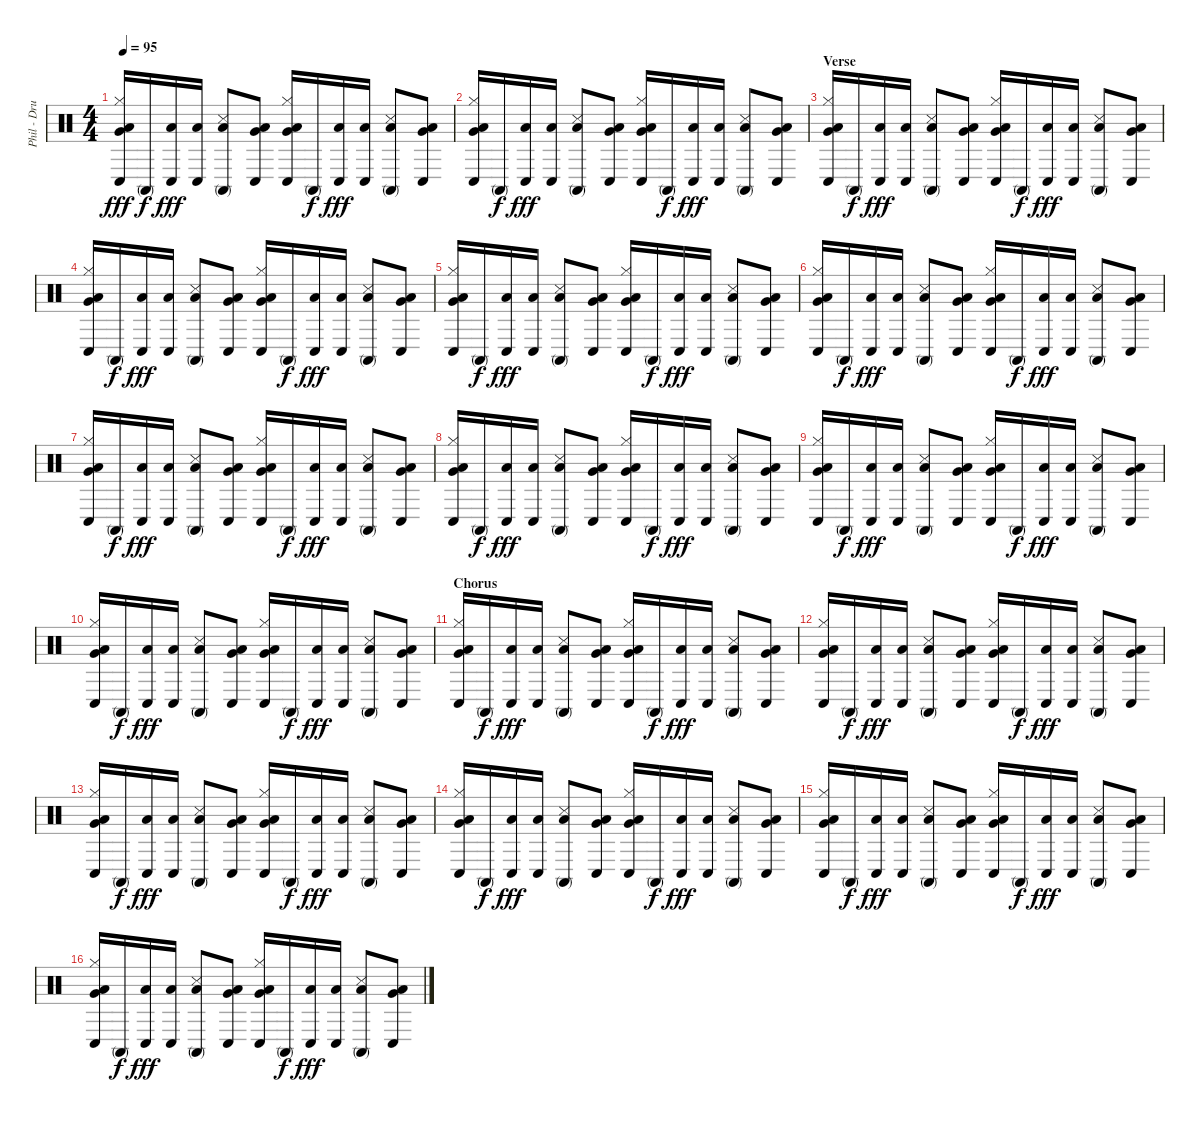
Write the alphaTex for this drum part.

\track ("Phil - Drums" "Phil - Dru") {instrument percussion}
\staff {score}
\articulation defaults
\ts (4 4)
\tempo 95
\clef neutral
\ks c
("Hi-Hat (closed)" "Conga low (hit)" "Low Floor Tom (hit)" "Very Low Tom (hit)").16{dy fff} "Conga high (mute)".16{dy f} ("Conga low (hit)" "Low Tom (hit)").16{dy fff} ("Conga low (hit)" "Low Tom (hit)").16 ("Conga high (mute)" "Snare (side stick) 3" "Low Tom (hit)").8 ("Conga low (hit)" "Low Floor Tom (hit)" "Very Low Tom (hit)").8 ("Hi-Hat (closed)" "Conga low (hit)" "Low Floor Tom (hit)" "Very Low Tom (hit)").16 "Conga high (mute)".16{dy f} ("Conga low (hit)" "Low Tom (hit)").16{dy fff} ("Conga low (hit)" "Low Tom (hit)").16 ("Conga high (mute)" "Snare (side stick) 3" "Low Tom (hit)").8 ("Conga low (hit)" "Low Floor Tom (hit)" "Very Low Tom (hit)").8 |
("Hi-Hat (closed)" "Conga low (hit)" "Low Floor Tom (hit)" "Very Low Tom (hit)").16 "Conga high (mute)".16{dy f} ("Conga low (hit)" "Low Tom (hit)").16{dy fff} ("Conga low (hit)" "Low Tom (hit)").16 ("Conga high (mute)" "Snare (side stick) 3" "Low Tom (hit)").8 ("Conga low (hit)" "Low Floor Tom (hit)" "Very Low Tom (hit)").8 ("Hi-Hat (closed)" "Conga low (hit)" "Low Floor Tom (hit)" "Very Low Tom (hit)").16 "Conga high (mute)".16{dy f} ("Conga low (hit)" "Low Tom (hit)").16{dy fff} ("Conga low (hit)" "Low Tom (hit)").16 ("Conga high (mute)" "Snare (side stick) 3" "Low Tom (hit)").8 ("Conga low (hit)" "Low Floor Tom (hit)" "Very Low Tom (hit)").8 |
\section ("" "Verse")
("Hi-Hat (closed)" "Conga low (hit)" "Low Floor Tom (hit)" "Very Low Tom (hit)").16 "Conga high (mute)".16{dy f} ("Conga low (hit)" "Low Tom (hit)").16{dy fff} ("Conga low (hit)" "Low Tom (hit)").16 ("Conga high (mute)" "Snare (side stick) 3" "Low Tom (hit)").8 ("Conga low (hit)" "Low Floor Tom (hit)" "Very Low Tom (hit)").8 ("Hi-Hat (closed)" "Conga low (hit)" "Low Floor Tom (hit)" "Very Low Tom (hit)").16 "Conga high (mute)".16{dy f} ("Conga low (hit)" "Low Tom (hit)").16{dy fff} ("Conga low (hit)" "Low Tom (hit)").16 ("Conga high (mute)" "Snare (side stick) 3" "Low Tom (hit)").8 ("Conga low (hit)" "Low Floor Tom (hit)" "Very Low Tom (hit)").8 |
("Hi-Hat (closed)" "Conga low (hit)" "Low Floor Tom (hit)" "Very Low Tom (hit)").16 "Conga high (mute)".16{dy f} ("Conga low (hit)" "Low Tom (hit)").16{dy fff} ("Conga low (hit)" "Low Tom (hit)").16 ("Conga high (mute)" "Snare (side stick) 3" "Low Tom (hit)").8 ("Conga low (hit)" "Low Floor Tom (hit)" "Very Low Tom (hit)").8 ("Hi-Hat (closed)" "Conga low (hit)" "Low Floor Tom (hit)" "Very Low Tom (hit)").16 "Conga high (mute)".16{dy f} ("Conga low (hit)" "Low Tom (hit)").16{dy fff} ("Conga low (hit)" "Low Tom (hit)").16 ("Conga high (mute)" "Snare (side stick) 3" "Low Tom (hit)").8 ("Conga low (hit)" "Low Floor Tom (hit)" "Very Low Tom (hit)").8 |
("Hi-Hat (closed)" "Conga low (hit)" "Low Floor Tom (hit)" "Very Low Tom (hit)").16 "Conga high (mute)".16{dy f} ("Conga low (hit)" "Low Tom (hit)").16{dy fff} ("Conga low (hit)" "Low Tom (hit)").16 ("Conga high (mute)" "Snare (side stick) 3" "Low Tom (hit)").8 ("Conga low (hit)" "Low Floor Tom (hit)" "Very Low Tom (hit)").8 ("Hi-Hat (closed)" "Conga low (hit)" "Low Floor Tom (hit)" "Very Low Tom (hit)").16 "Conga high (mute)".16{dy f} ("Conga low (hit)" "Low Tom (hit)").16{dy fff} ("Conga low (hit)" "Low Tom (hit)").16 ("Conga high (mute)" "Snare (side stick) 3" "Low Tom (hit)").8 ("Conga low (hit)" "Low Floor Tom (hit)" "Very Low Tom (hit)").8 |
("Hi-Hat (closed)" "Conga low (hit)" "Low Floor Tom (hit)" "Very Low Tom (hit)").16 "Conga high (mute)".16{dy f} ("Conga low (hit)" "Low Tom (hit)").16{dy fff} ("Conga low (hit)" "Low Tom (hit)").16 ("Conga high (mute)" "Snare (side stick) 3" "Low Tom (hit)").8 ("Conga low (hit)" "Low Floor Tom (hit)" "Very Low Tom (hit)").8 ("Hi-Hat (closed)" "Conga low (hit)" "Low Floor Tom (hit)" "Very Low Tom (hit)").16 "Conga high (mute)".16{dy f} ("Conga low (hit)" "Low Tom (hit)").16{dy fff} ("Conga low (hit)" "Low Tom (hit)").16 ("Conga high (mute)" "Snare (side stick) 3" "Low Tom (hit)").8 ("Conga low (hit)" "Low Floor Tom (hit)" "Very Low Tom (hit)").8 |
("Hi-Hat (closed)" "Conga low (hit)" "Low Floor Tom (hit)" "Very Low Tom (hit)").16 "Conga high (mute)".16{dy f} ("Conga low (hit)" "Low Tom (hit)").16{dy fff} ("Conga low (hit)" "Low Tom (hit)").16 ("Conga high (mute)" "Snare (side stick) 3" "Low Tom (hit)").8 ("Conga low (hit)" "Low Floor Tom (hit)" "Very Low Tom (hit)").8 ("Hi-Hat (closed)" "Conga low (hit)" "Low Floor Tom (hit)" "Very Low Tom (hit)").16 "Conga high (mute)".16{dy f} ("Conga low (hit)" "Low Tom (hit)").16{dy fff} ("Conga low (hit)" "Low Tom (hit)").16 ("Conga high (mute)" "Snare (side stick) 3" "Low Tom (hit)").8 ("Conga low (hit)" "Low Floor Tom (hit)" "Very Low Tom (hit)").8 |
("Hi-Hat (closed)" "Conga low (hit)" "Low Floor Tom (hit)" "Very Low Tom (hit)").16 "Conga high (mute)".16{dy f} ("Conga low (hit)" "Low Tom (hit)").16{dy fff} ("Conga low (hit)" "Low Tom (hit)").16 ("Conga high (mute)" "Snare (side stick) 3" "Low Tom (hit)").8 ("Conga low (hit)" "Low Floor Tom (hit)" "Very Low Tom (hit)").8 ("Hi-Hat (closed)" "Conga low (hit)" "Low Floor Tom (hit)" "Very Low Tom (hit)").16 "Conga high (mute)".16{dy f} ("Conga low (hit)" "Low Tom (hit)").16{dy fff} ("Conga low (hit)" "Low Tom (hit)").16 ("Conga high (mute)" "Snare (side stick) 3" "Low Tom (hit)").8 ("Conga low (hit)" "Low Floor Tom (hit)" "Very Low Tom (hit)").8 |
("Hi-Hat (closed)" "Conga low (hit)" "Low Floor Tom (hit)" "Very Low Tom (hit)").16 "Conga high (mute)".16{dy f} ("Conga low (hit)" "Low Tom (hit)").16{dy fff} ("Conga low (hit)" "Low Tom (hit)").16 ("Conga high (mute)" "Snare (side stick) 3" "Low Tom (hit)").8 ("Conga low (hit)" "Low Floor Tom (hit)" "Very Low Tom (hit)").8 ("Hi-Hat (closed)" "Conga low (hit)" "Low Floor Tom (hit)" "Very Low Tom (hit)").16 "Conga high (mute)".16{dy f} ("Conga low (hit)" "Low Tom (hit)").16{dy fff} ("Conga low (hit)" "Low Tom (hit)").16 ("Conga high (mute)" "Snare (side stick) 3" "Low Tom (hit)").8 ("Conga low (hit)" "Low Floor Tom (hit)" "Very Low Tom (hit)").8 |
("Hi-Hat (closed)" "Conga low (hit)" "Low Floor Tom (hit)" "Very Low Tom (hit)").16 "Conga high (mute)".16{dy f} ("Conga low (hit)" "Low Tom (hit)").16{dy fff} ("Conga low (hit)" "Low Tom (hit)").16 ("Conga high (mute)" "Snare (side stick) 3" "Low Tom (hit)").8 ("Conga low (hit)" "Low Floor Tom (hit)" "Very Low Tom (hit)").8 ("Hi-Hat (closed)" "Conga low (hit)" "Low Floor Tom (hit)" "Very Low Tom (hit)").16 "Conga high (mute)".16{dy f} ("Conga low (hit)" "Low Tom (hit)").16{dy fff} ("Conga low (hit)" "Low Tom (hit)").16 ("Conga high (mute)" "Snare (side stick) 3" "Low Tom (hit)").8 ("Conga low (hit)" "Low Floor Tom (hit)" "Very Low Tom (hit)").8 |
\section ("" "Chorus")
("Hi-Hat (closed)" "Conga low (hit)" "Low Floor Tom (hit)" "Very Low Tom (hit)").16 "Conga high (mute)".16{dy f} ("Conga low (hit)" "Low Tom (hit)").16{dy fff} ("Conga low (hit)" "Low Tom (hit)").16 ("Conga high (mute)" "Snare (side stick) 3" "Low Tom (hit)").8 ("Conga low (hit)" "Low Floor Tom (hit)" "Very Low Tom (hit)").8 ("Hi-Hat (closed)" "Conga low (hit)" "Low Floor Tom (hit)" "Very Low Tom (hit)").16 "Conga high (mute)".16{dy f} ("Conga low (hit)" "Low Tom (hit)").16{dy fff} ("Conga low (hit)" "Low Tom (hit)").16 ("Conga high (mute)" "Snare (side stick) 3" "Low Tom (hit)").8 ("Conga low (hit)" "Low Floor Tom (hit)" "Very Low Tom (hit)").8 |
("Hi-Hat (closed)" "Conga low (hit)" "Low Floor Tom (hit)" "Very Low Tom (hit)").16 "Conga high (mute)".16{dy f} ("Conga low (hit)" "Low Tom (hit)").16{dy fff} ("Conga low (hit)" "Low Tom (hit)").16 ("Conga high (mute)" "Snare (side stick) 3" "Low Tom (hit)").8 ("Conga low (hit)" "Low Floor Tom (hit)" "Very Low Tom (hit)").8 ("Hi-Hat (closed)" "Conga low (hit)" "Low Floor Tom (hit)" "Very Low Tom (hit)").16 "Conga high (mute)".16{dy f} ("Conga low (hit)" "Low Tom (hit)").16{dy fff} ("Conga low (hit)" "Low Tom (hit)").16 ("Conga high (mute)" "Snare (side stick) 3" "Low Tom (hit)").8 ("Conga low (hit)" "Low Floor Tom (hit)" "Very Low Tom (hit)").8 |
("Hi-Hat (closed)" "Conga low (hit)" "Low Floor Tom (hit)" "Very Low Tom (hit)").16 "Conga high (mute)".16{dy f} ("Conga low (hit)" "Low Tom (hit)").16{dy fff} ("Conga low (hit)" "Low Tom (hit)").16 ("Conga high (mute)" "Snare (side stick) 3" "Low Tom (hit)").8 ("Conga low (hit)" "Low Floor Tom (hit)" "Very Low Tom (hit)").8 ("Hi-Hat (closed)" "Conga low (hit)" "Low Floor Tom (hit)" "Very Low Tom (hit)").16 "Conga high (mute)".16{dy f} ("Conga low (hit)" "Low Tom (hit)").16{dy fff} ("Conga low (hit)" "Low Tom (hit)").16 ("Conga high (mute)" "Snare (side stick) 3" "Low Tom (hit)").8 ("Conga low (hit)" "Low Floor Tom (hit)" "Very Low Tom (hit)").8 |
("Hi-Hat (closed)" "Conga low (hit)" "Low Floor Tom (hit)" "Very Low Tom (hit)").16 "Conga high (mute)".16{dy f} ("Conga low (hit)" "Low Tom (hit)").16{dy fff} ("Conga low (hit)" "Low Tom (hit)").16 ("Conga high (mute)" "Snare (side stick) 3" "Low Tom (hit)").8 ("Conga low (hit)" "Low Floor Tom (hit)" "Very Low Tom (hit)").8 ("Hi-Hat (closed)" "Conga low (hit)" "Low Floor Tom (hit)" "Very Low Tom (hit)").16 "Conga high (mute)".16{dy f} ("Conga low (hit)" "Low Tom (hit)").16{dy fff} ("Conga low (hit)" "Low Tom (hit)").16 ("Conga high (mute)" "Snare (side stick) 3" "Low Tom (hit)").8 ("Conga low (hit)" "Low Floor Tom (hit)" "Very Low Tom (hit)").8 |
("Hi-Hat (closed)" "Conga low (hit)" "Low Floor Tom (hit)" "Very Low Tom (hit)").16 "Conga high (mute)".16{dy f} ("Conga low (hit)" "Low Tom (hit)").16{dy fff} ("Conga low (hit)" "Low Tom (hit)").16 ("Conga high (mute)" "Snare (side stick) 3" "Low Tom (hit)").8 ("Conga low (hit)" "Low Floor Tom (hit)" "Very Low Tom (hit)").8 ("Hi-Hat (closed)" "Conga low (hit)" "Low Floor Tom (hit)" "Very Low Tom (hit)").16 "Conga high (mute)".16{dy f} ("Conga low (hit)" "Low Tom (hit)").16{dy fff} ("Conga low (hit)" "Low Tom (hit)").16 ("Conga high (mute)" "Snare (side stick) 3" "Low Tom (hit)").8 ("Conga low (hit)" "Low Floor Tom (hit)" "Very Low Tom (hit)").8 |
("Hi-Hat (closed)" "Conga low (hit)" "Low Floor Tom (hit)" "Very Low Tom (hit)").16 "Conga high (mute)".16{dy f} ("Conga low (hit)" "Low Tom (hit)").16{dy fff} ("Conga low (hit)" "Low Tom (hit)").16 ("Conga high (mute)" "Snare (side stick) 3" "Low Tom (hit)").8 ("Conga low (hit)" "Low Floor Tom (hit)" "Very Low Tom (hit)").8 ("Hi-Hat (closed)" "Conga low (hit)" "Low Floor Tom (hit)" "Very Low Tom (hit)").16 "Conga high (mute)".16{dy f} ("Conga low (hit)" "Low Tom (hit)").16{dy fff} ("Conga low (hit)" "Low Tom (hit)").16 ("Conga high (mute)" "Snare (side stick) 3" "Low Tom (hit)").8 ("Conga low (hit)" "Low Floor Tom (hit)" "Very Low Tom (hit)").8
